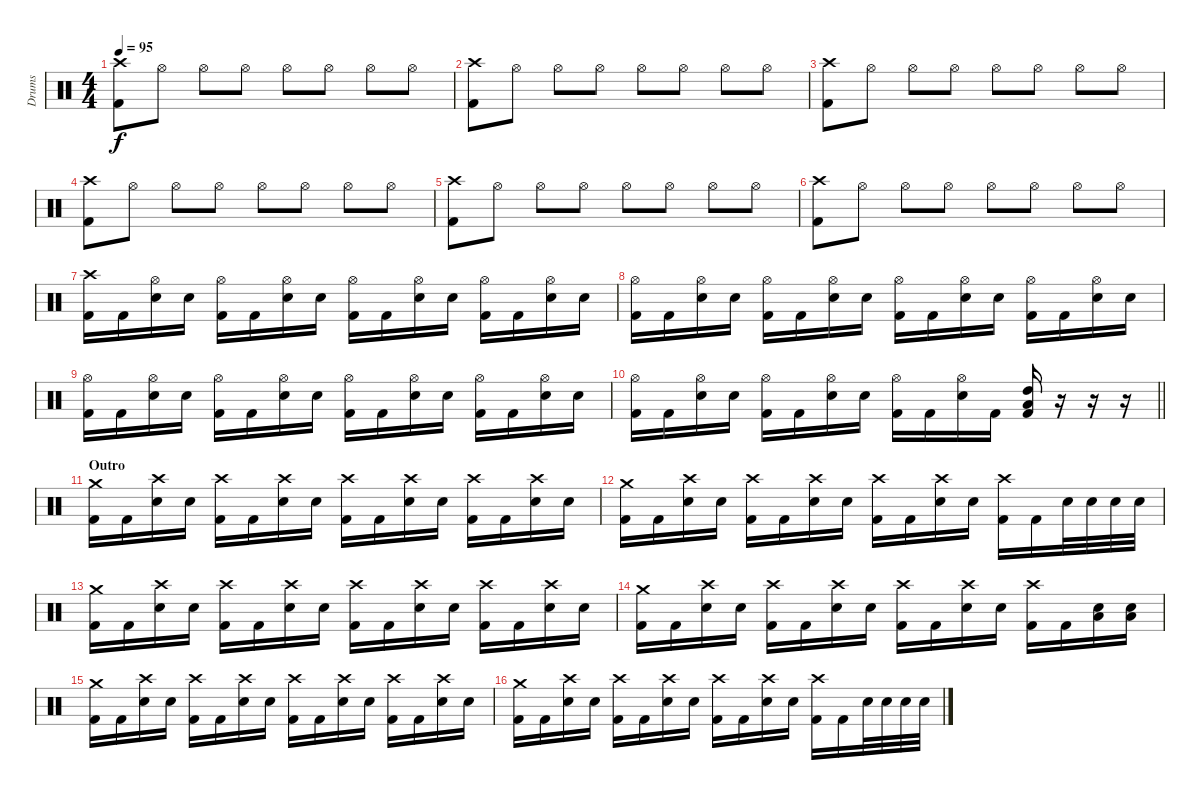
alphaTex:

\track ("Drums" "Drums") {instrument percussion}
\staff {score}
\articulation defaults
\ts (4 4)
\tempo 95
\clef neutral
\ks c
("Crash high (hit)" "Kick (hit) 2").8{dy f} "Hi-Hat (open)".8 "Hi-Hat (open)".8 "Hi-Hat (open)".8 "Hi-Hat (open)".8 "Hi-Hat (open)".8 "Hi-Hat (open)".8 "Hi-Hat (open)".8 |
("Crash high (hit)" "Kick (hit) 2").8 "Hi-Hat (open)".8 "Hi-Hat (open)".8 "Hi-Hat (open)".8 "Hi-Hat (open)".8 "Hi-Hat (open)".8 "Hi-Hat (open)".8 "Hi-Hat (open)".8 |
("Crash high (hit)" "Kick (hit) 2").8 "Hi-Hat (open)".8 "Hi-Hat (open)".8 "Hi-Hat (open)".8 "Hi-Hat (open)".8 "Hi-Hat (open)".8 "Hi-Hat (open)".8 "Hi-Hat (open)".8 |
("Crash high (hit)" "Kick (hit) 2").8 "Hi-Hat (open)".8 "Hi-Hat (open)".8 "Hi-Hat (open)".8 "Hi-Hat (open)".8 "Hi-Hat (open)".8 "Hi-Hat (open)".8 "Hi-Hat (open)".8 |
("Crash high (hit)" "Kick (hit) 2").8 "Hi-Hat (open)".8 "Hi-Hat (open)".8 "Hi-Hat (open)".8 "Hi-Hat (open)".8 "Hi-Hat (open)".8 "Hi-Hat (open)".8 "Hi-Hat (open)".8 |
("Crash high (hit)" "Kick (hit) 2").8 "Hi-Hat (open)".8 "Hi-Hat (open)".8 "Hi-Hat (open)".8 "Hi-Hat (open)".8 "Hi-Hat (open)".8 "Hi-Hat (open)".8 "Hi-Hat (open)".8 |
("Crash high (hit)" "Kick (hit) 2").16 "Kick (hit) 2".16 ("Hi-Hat (open)" "Electric Snare (hit)").16 "Electric Snare (hit)".16 ("Hi-Hat (open)" "Kick (hit) 2").16 "Kick (hit) 2".16 ("Hi-Hat (open)" "Electric Snare (hit)").16 "Electric Snare (hit)".16 ("Hi-Hat (open)" "Kick (hit) 2").16 "Kick (hit) 2".16 ("Hi-Hat (open)" "Electric Snare (hit)").16 "Electric Snare (hit)".16 ("Hi-Hat (open)" "Kick (hit) 2").16 "Kick (hit) 2".16 ("Hi-Hat (open)" "Electric Snare (hit)").16 "Electric Snare (hit)".16 |
("Hi-Hat (open)" "Kick (hit) 2").16 "Kick (hit) 2".16 ("Hi-Hat (open)" "Electric Snare (hit)").16 "Electric Snare (hit)".16 ("Hi-Hat (open)" "Kick (hit) 2").16 "Kick (hit) 2".16 ("Hi-Hat (open)" "Electric Snare (hit)").16 "Electric Snare (hit)".16 ("Hi-Hat (open)" "Kick (hit) 2").16 "Kick (hit) 2".16 ("Hi-Hat (open)" "Electric Snare (hit)").16 "Electric Snare (hit)".16 ("Hi-Hat (open)" "Kick (hit) 2").16 "Kick (hit) 2".16 ("Hi-Hat (open)" "Electric Snare (hit)").16 "Electric Snare (hit)".16 |
("Hi-Hat (open)" "Kick (hit) 2").16 "Kick (hit) 2".16 ("Hi-Hat (open)" "Electric Snare (hit)").16 "Electric Snare (hit)".16 ("Hi-Hat (open)" "Kick (hit) 2").16 "Kick (hit) 2".16 ("Hi-Hat (open)" "Electric Snare (hit)").16 "Electric Snare (hit)".16 ("Hi-Hat (open)" "Kick (hit) 2").16 "Kick (hit) 2".16 ("Hi-Hat (open)" "Electric Snare (hit)").16 "Electric Snare (hit)".16 ("Hi-Hat (open)" "Kick (hit) 2").16 "Kick (hit) 2".16 ("Hi-Hat (open)" "Electric Snare (hit)").16 "Electric Snare (hit)".16 |
\barLineRight lightlight
("Hi-Hat (open)" "Kick (hit) 2").16 "Kick (hit) 2".16 ("Hi-Hat (open)" "Electric Snare (hit)").16 "Electric Snare (hit)".16 ("Hi-Hat (open)" "Kick (hit) 2").16 "Kick (hit) 2".16 ("Hi-Hat (open)" "Electric Snare (hit)").16 "Electric Snare (hit)".16 ("Hi-Hat (open)" "Kick (hit) 2").16 "Kick (hit) 2".16 ("Hi-Hat (open)" "Electric Snare (hit)").16 "Kick (hit) 2".16 ("Low Tom (hit)" "High Tom (hit)" "Kick (hit) 2").16 r.16 r.16 r.16 |
\section ("" "Outro")
("Crash medium (hit)" "Kick (hit) 2").16 "Kick (hit) 2".16 ("Crash high (hit)" "Electric Snare (hit)").16 "Electric Snare (hit)".16 ("Crash high (hit)" "Kick (hit) 2").16 "Kick (hit) 2".16 ("Crash high (hit)" "Electric Snare (hit)").16 "Electric Snare (hit)".16 ("Crash high (hit)" "Kick (hit) 2").16 "Kick (hit) 2".16 ("Crash high (hit)" "Electric Snare (hit)").16 "Electric Snare (hit)".16 ("Crash high (hit)" "Kick (hit) 2").16 "Kick (hit) 2".16 ("Crash high (hit)" "Electric Snare (hit)").16 "Electric Snare (hit)".16 |
("Crash medium (hit)" "Kick (hit) 2").16 "Kick (hit) 2".16 ("Crash high (hit)" "Electric Snare (hit)").16 "Electric Snare (hit)".16 ("Crash high (hit)" "Kick (hit) 2").16 "Kick (hit) 2".16 ("Crash high (hit)" "Electric Snare (hit)").16 "Electric Snare (hit)".16 ("Crash high (hit)" "Kick (hit) 2").16 "Kick (hit) 2".16 ("Crash high (hit)" "Electric Snare (hit)").16 "Electric Snare (hit)".16 ("Crash high (hit)" "Kick (hit) 2").16 "Kick (hit) 2".16 "Electric Snare (hit)".32 "Electric Snare (hit)".32 "Electric Snare (hit)".32 "Electric Snare (hit)".32 |
("Crash medium (hit)" "Kick (hit) 2").16 "Kick (hit) 2".16 ("Crash high (hit)" "Electric Snare (hit)").16 "Electric Snare (hit)".16 ("Crash high (hit)" "Kick (hit) 2").16 "Kick (hit) 2".16 ("Crash high (hit)" "Electric Snare (hit)").16 "Electric Snare (hit)".16 ("Crash high (hit)" "Kick (hit) 2").16 "Kick (hit) 2".16 ("Crash high (hit)" "Electric Snare (hit)").16 "Electric Snare (hit)".16 ("Crash high (hit)" "Kick (hit) 2").16 "Kick (hit) 2".16 ("Crash high (hit)" "Electric Snare (hit)").16 "Electric Snare (hit)".16 |
("Crash medium (hit)" "Kick (hit) 2").16 "Kick (hit) 2".16 ("Crash high (hit)" "Electric Snare (hit)").16 "Electric Snare (hit)".16 ("Crash high (hit)" "Kick (hit) 2").16 "Kick (hit) 2".16 ("Crash high (hit)" "Electric Snare (hit)").16 "Electric Snare (hit)".16 ("Crash high (hit)" "Kick (hit) 2").16 "Kick (hit) 2".16 ("Crash high (hit)" "Electric Snare (hit)").16 "Electric Snare (hit)".16 ("Crash high (hit)" "Kick (hit) 2").16 "Kick (hit) 2".16 ("Electric Snare (hit)" "Low Tom (hit)").16 ("Electric Snare (hit)" "Low Tom (hit)").16 |
("Crash medium (hit)" "Kick (hit) 2").16 "Kick (hit) 2".16 ("Crash high (hit)" "Electric Snare (hit)").16 "Electric Snare (hit)".16 ("Crash high (hit)" "Kick (hit) 2").16 "Kick (hit) 2".16 ("Crash high (hit)" "Electric Snare (hit)").16 "Electric Snare (hit)".16 ("Crash high (hit)" "Kick (hit) 2").16 "Kick (hit) 2".16 ("Crash high (hit)" "Electric Snare (hit)").16 "Electric Snare (hit)".16 ("Crash high (hit)" "Kick (hit) 2").16 "Kick (hit) 2".16 ("Crash high (hit)" "Electric Snare (hit)").16 "Electric Snare (hit)".16 |
("Crash medium (hit)" "Kick (hit) 2").16 "Kick (hit) 2".16 ("Crash high (hit)" "Electric Snare (hit)").16 "Electric Snare (hit)".16 ("Crash high (hit)" "Kick (hit) 2").16 "Kick (hit) 2".16 ("Crash high (hit)" "Electric Snare (hit)").16 "Electric Snare (hit)".16 ("Crash high (hit)" "Kick (hit) 2").16 "Kick (hit) 2".16 ("Crash high (hit)" "Electric Snare (hit)").16 "Electric Snare (hit)".16 ("Crash high (hit)" "Kick (hit) 2").16 "Kick (hit) 2".16 "Electric Snare (hit)".32 "Electric Snare (hit)".32 "Electric Snare (hit)".32 "Electric Snare (hit)".32
